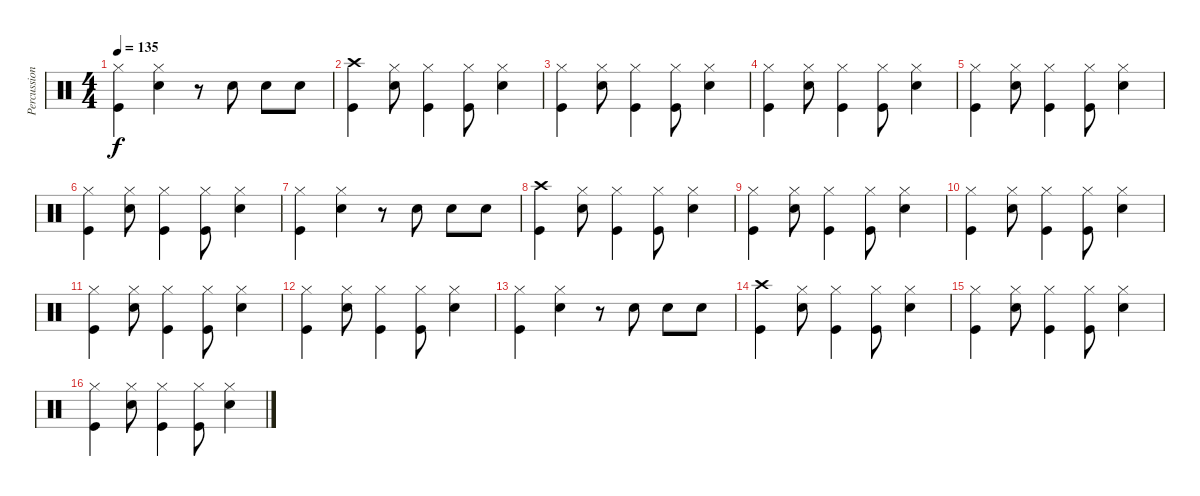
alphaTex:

\track ("Percussion" "Percussion") {instrument percussion}
\staff {score}
\articulation defaults
\ts (4 4)
\tempo 135
\clef neutral
\ks c
("Hi-Hat (closed)" "Kick (hit)").4{dy f} ("Hi-Hat (closed)" "Electric Snare (hit)").4 r.8 "Electric Snare (hit)".8 "Electric Snare (hit)".8 "Electric Snare (hit)".8 |
("Crash high (hit)" "Kick (hit)").4 ("Hi-Hat (closed)" "Electric Snare (hit)").8 ("Hi-Hat (closed)" "Kick (hit)").4 ("Hi-Hat (closed)" "Kick (hit)").8 ("Hi-Hat (closed)" "Electric Snare (hit)").4 |
("Hi-Hat (closed)" "Kick (hit)").4 ("Hi-Hat (closed)" "Electric Snare (hit)").8 ("Hi-Hat (closed)" "Kick (hit)").4 ("Hi-Hat (closed)" "Kick (hit)").8 ("Hi-Hat (closed)" "Electric Snare (hit)").4 |
("Hi-Hat (closed)" "Kick (hit)").4 ("Hi-Hat (closed)" "Electric Snare (hit)").8 ("Hi-Hat (closed)" "Kick (hit)").4 ("Hi-Hat (closed)" "Kick (hit)").8 ("Hi-Hat (closed)" "Electric Snare (hit)").4 |
("Hi-Hat (closed)" "Kick (hit)").4 ("Hi-Hat (closed)" "Electric Snare (hit)").8 ("Hi-Hat (closed)" "Kick (hit)").4 ("Hi-Hat (closed)" "Kick (hit)").8 ("Hi-Hat (closed)" "Electric Snare (hit)").4 |
("Hi-Hat (closed)" "Kick (hit)").4 ("Hi-Hat (closed)" "Electric Snare (hit)").8 ("Hi-Hat (closed)" "Kick (hit)").4 ("Hi-Hat (closed)" "Kick (hit)").8 ("Hi-Hat (closed)" "Electric Snare (hit)").4 |
("Hi-Hat (closed)" "Kick (hit)").4 ("Hi-Hat (closed)" "Electric Snare (hit)").4 r.8 "Electric Snare (hit)".8 "Electric Snare (hit)".8 "Electric Snare (hit)".8 |
("Crash high (hit)" "Kick (hit)").4 ("Hi-Hat (closed)" "Electric Snare (hit)").8 ("Hi-Hat (closed)" "Kick (hit)").4 ("Hi-Hat (closed)" "Kick (hit)").8 ("Hi-Hat (closed)" "Electric Snare (hit)").4 |
("Hi-Hat (closed)" "Kick (hit)").4 ("Hi-Hat (closed)" "Electric Snare (hit)").8 ("Hi-Hat (closed)" "Kick (hit)").4 ("Hi-Hat (closed)" "Kick (hit)").8 ("Hi-Hat (closed)" "Electric Snare (hit)").4 |
("Hi-Hat (closed)" "Kick (hit)").4 ("Hi-Hat (closed)" "Electric Snare (hit)").8 ("Hi-Hat (closed)" "Kick (hit)").4 ("Hi-Hat (closed)" "Kick (hit)").8 ("Hi-Hat (closed)" "Electric Snare (hit)").4 |
("Hi-Hat (closed)" "Kick (hit)").4 ("Hi-Hat (closed)" "Electric Snare (hit)").8 ("Hi-Hat (closed)" "Kick (hit)").4 ("Hi-Hat (closed)" "Kick (hit)").8 ("Hi-Hat (closed)" "Electric Snare (hit)").4 |
("Hi-Hat (closed)" "Kick (hit)").4 ("Hi-Hat (closed)" "Electric Snare (hit)").8 ("Hi-Hat (closed)" "Kick (hit)").4 ("Hi-Hat (closed)" "Kick (hit)").8 ("Hi-Hat (closed)" "Electric Snare (hit)").4 |
("Hi-Hat (closed)" "Kick (hit)").4 ("Hi-Hat (closed)" "Electric Snare (hit)").4 r.8 "Electric Snare (hit)".8 "Electric Snare (hit)".8 "Electric Snare (hit)".8 |
("Crash high (hit)" "Kick (hit)").4 ("Hi-Hat (closed)" "Electric Snare (hit)").8 ("Hi-Hat (closed)" "Kick (hit)").4 ("Hi-Hat (closed)" "Kick (hit)").8 ("Hi-Hat (closed)" "Electric Snare (hit)").4 |
("Hi-Hat (closed)" "Kick (hit)").4 ("Hi-Hat (closed)" "Electric Snare (hit)").8 ("Hi-Hat (closed)" "Kick (hit)").4 ("Hi-Hat (closed)" "Kick (hit)").8 ("Hi-Hat (closed)" "Electric Snare (hit)").4 |
("Hi-Hat (closed)" "Kick (hit)").4 ("Hi-Hat (closed)" "Electric Snare (hit)").8 ("Hi-Hat (closed)" "Kick (hit)").4 ("Hi-Hat (closed)" "Kick (hit)").8 ("Hi-Hat (closed)" "Electric Snare (hit)").4
